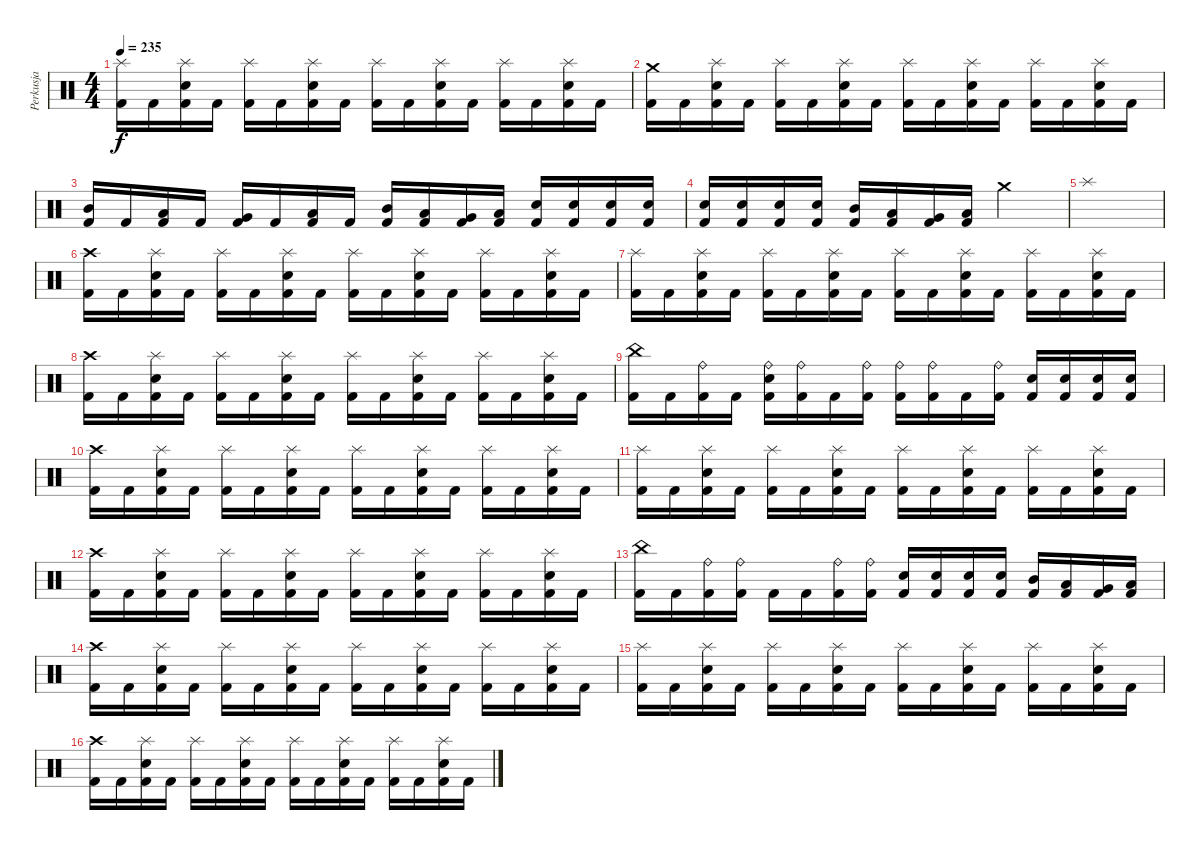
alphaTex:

\track ("Perkusja" "Perkusja") {instrument percussion}
\staff {score}
\articulation defaults
\ts (4 4)
\tempo 235
\clef neutral
\ks c
("Splash (hit)" "Kick (hit) 2").16{dy f} "Kick (hit) 2".16 ("Splash (hit)" "Snare (hit) 2" "Kick (hit) 2").16 "Kick (hit) 2".16 ("Splash (hit)" "Kick (hit) 2").16 "Kick (hit) 2".16 ("Splash (hit)" "Snare (hit) 2" "Kick (hit) 2").16 "Kick (hit) 2".16 ("Splash (hit)" "Kick (hit) 2").16 "Kick (hit) 2".16 ("Splash (hit)" "Snare (hit) 2" "Kick (hit) 2").16 "Kick (hit) 2".16 ("Splash (hit)" "Kick (hit) 2").16 "Kick (hit) 2".16 ("Splash (hit)" "Snare (hit) 2" "Kick (hit) 2").16 "Kick (hit) 2".16 |
("Crash medium (hit)" "Kick (hit) 2").16 "Kick (hit) 2".16 ("Splash (hit)" "Snare (hit) 2" "Kick (hit) 2").16 "Kick (hit) 2".16 ("Splash (hit)" "Kick (hit) 2").16 "Kick (hit) 2".16 ("Splash (hit)" "Snare (hit) 2" "Kick (hit) 2").16 "Kick (hit) 2".16 ("Splash (hit)" "Kick (hit) 2").16 "Kick (hit) 2".16 ("Splash (hit)" "Snare (hit) 2" "Kick (hit) 2").16 "Kick (hit) 2".16 ("Splash (hit)" "Kick (hit) 2").16 "Kick (hit) 2".16 ("Splash (hit)" "Snare (hit) 2" "Kick (hit) 2").16 "Kick (hit) 2".16 |
("Mid Tom (hit)" "Kick (hit) 2").16 "Kick (hit) 2".16 ("Low Tom (hit)" "Kick (hit) 2").16 "Kick (hit) 2".16 ("Very Low Tom (hit)" "Kick (hit) 2").16 "Kick (hit) 2".16 ("Low Floor Tom (hit)" "Kick (hit) 2").16 "Kick (hit) 2".16 ("Mid Tom (hit)" "Kick (hit) 2").16 ("Low Tom (hit)" "Kick (hit) 2").16 ("Very Low Tom (hit)" "Kick (hit) 2").16 ("Low Floor Tom (hit)" "Kick (hit) 2").16 ("Snare (hit) 2" "Kick (hit) 2").16 ("Snare (hit) 2" "Kick (hit) 2").16 ("Snare (hit) 2" "Kick (hit) 2").16 ("Snare (hit) 2" "Kick (hit) 2").16 |
("Electric Snare (hit)" "Kick (hit) 2").16 ("Electric Snare (hit)" "Kick (hit) 2").16 ("Electric Snare (hit)" "Kick (hit) 2").16 ("Electric Snare (hit)" "Kick (hit) 2").16 ("Mid Tom (hit)" "Kick (hit) 2").16 ("Low Tom (hit)" "Kick (hit) 2").16 ("Very Low Tom (hit)" "Kick (hit) 2").16 ("Low Floor Tom (hit)" "Kick (hit) 2").16 "Crash medium (hit)".2 |
"Splash (hit)".1 |
("Crash high (hit)" "Kick (hit) 2").16 "Kick (hit) 2".16 ("Splash (hit)" "Snare (hit) 2" "Kick (hit) 2").16 "Kick (hit) 2".16 ("Splash (hit)" "Kick (hit) 2").16 "Kick (hit) 2".16 ("Splash (hit)" "Snare (hit) 2" "Kick (hit) 2").16 "Kick (hit) 2".16 ("Splash (hit)" "Kick (hit) 2").16 "Kick (hit) 2".16 ("Splash (hit)" "Snare (hit) 2" "Kick (hit) 2").16 "Kick (hit) 2".16 ("Splash (hit)" "Kick (hit) 2").16 "Kick (hit) 2".16 ("Splash (hit)" "Snare (hit) 2" "Kick (hit) 2").16 "Kick (hit) 2".16 |
("Splash (hit)" "Kick (hit) 2").16 "Kick (hit) 2".16 ("Splash (hit)" "Snare (hit) 2" "Kick (hit) 2").16 "Kick (hit) 2".16 ("Splash (hit)" "Kick (hit) 2").16 "Kick (hit) 2".16 ("Splash (hit)" "Snare (hit) 2" "Kick (hit) 2").16 "Kick (hit) 2".16 ("Splash (hit)" "Kick (hit) 2").16 "Kick (hit) 2".16 ("Splash (hit)" "Snare (hit) 2" "Kick (hit) 2").16 "Kick (hit) 2".16 ("Splash (hit)" "Kick (hit) 2").16 "Kick (hit) 2".16 ("Splash (hit)" "Snare (hit) 2" "Kick (hit) 2").16 "Kick (hit) 2".16 |
("Crash high (hit)" "Kick (hit) 2").16 "Kick (hit) 2".16 ("Splash (hit)" "Snare (hit) 2" "Kick (hit) 2").16 "Kick (hit) 2".16 ("Splash (hit)" "Kick (hit) 2").16 "Kick (hit) 2".16 ("Splash (hit)" "Snare (hit) 2" "Kick (hit) 2").16 "Kick (hit) 2".16 ("Splash (hit)" "Kick (hit) 2").16 "Kick (hit) 2".16 ("Splash (hit)" "Snare (hit) 2" "Kick (hit) 2").16 "Kick (hit) 2".16 ("Splash (hit)" "Kick (hit) 2").16 "Kick (hit) 2".16 ("Splash (hit)" "Snare (hit) 2" "Kick (hit) 2").16 "Kick (hit) 2".16 |
("China (hit)" "Kick (hit) 2").16 "Kick (hit) 2".16 ("Ride (bell)" "Kick (hit) 2").16 "Kick (hit) 2".16 ("Ride (bell)" "Electric Snare (hit)" "Kick (hit) 2").16 ("Ride (bell)" "Kick (hit) 2").16 "Kick (hit) 2".16 ("Ride (bell)" "Kick (hit) 2").16 ("Ride (bell)" "Kick (hit) 2").16 ("Ride (bell)" "Kick (hit) 2").16 "Kick (hit) 2".16 ("Ride (bell)" "Kick (hit) 2").16 ("Snare (hit) 2" "Kick (hit) 2").16 ("Snare (hit) 2" "Kick (hit) 2").16 ("Snare (hit) 2" "Kick (hit) 2").16 ("Snare (hit) 2" "Kick (hit) 2").16 |
("Crash high (hit)" "Kick (hit) 2").16 "Kick (hit) 2".16 ("Splash (hit)" "Snare (hit) 2" "Kick (hit) 2").16 "Kick (hit) 2".16 ("Splash (hit)" "Kick (hit) 2").16 "Kick (hit) 2".16 ("Splash (hit)" "Snare (hit) 2" "Kick (hit) 2").16 "Kick (hit) 2".16 ("Splash (hit)" "Kick (hit) 2").16 "Kick (hit) 2".16 ("Splash (hit)" "Snare (hit) 2" "Kick (hit) 2").16 "Kick (hit) 2".16 ("Splash (hit)" "Kick (hit) 2").16 "Kick (hit) 2".16 ("Splash (hit)" "Snare (hit) 2" "Kick (hit) 2").16 "Kick (hit) 2".16 |
("Splash (hit)" "Kick (hit) 2").16 "Kick (hit) 2".16 ("Splash (hit)" "Snare (hit) 2" "Kick (hit) 2").16 "Kick (hit) 2".16 ("Splash (hit)" "Kick (hit) 2").16 "Kick (hit) 2".16 ("Splash (hit)" "Snare (hit) 2" "Kick (hit) 2").16 "Kick (hit) 2".16 ("Splash (hit)" "Kick (hit) 2").16 "Kick (hit) 2".16 ("Splash (hit)" "Snare (hit) 2" "Kick (hit) 2").16 "Kick (hit) 2".16 ("Splash (hit)" "Kick (hit) 2").16 "Kick (hit) 2".16 ("Splash (hit)" "Snare (hit) 2" "Kick (hit) 2").16 "Kick (hit) 2".16 |
("Crash high (hit)" "Kick (hit) 2").16 "Kick (hit) 2".16 ("Splash (hit)" "Snare (hit) 2" "Kick (hit) 2").16 "Kick (hit) 2".16 ("Splash (hit)" "Kick (hit) 2").16 "Kick (hit) 2".16 ("Splash (hit)" "Snare (hit) 2" "Kick (hit) 2").16 "Kick (hit) 2".16 ("Splash (hit)" "Kick (hit) 2").16 "Kick (hit) 2".16 ("Splash (hit)" "Snare (hit) 2" "Kick (hit) 2").16 "Kick (hit) 2".16 ("Splash (hit)" "Kick (hit) 2").16 "Kick (hit) 2".16 ("Splash (hit)" "Snare (hit) 2" "Kick (hit) 2").16 "Kick (hit) 2".16 |
("China (hit)" "Kick (hit) 2").16 "Kick (hit) 2".16 ("Ride (bell)" "Kick (hit) 2").16 ("Ride (bell)" "Kick (hit) 2").16 "Kick (hit) 2".16 "Kick (hit) 2".16 ("Ride (bell)" "Kick (hit) 2").16 ("Ride (bell)" "Kick (hit) 2").16 ("Electric Snare (hit)" "Kick (hit) 2").16 ("Electric Snare (hit)" "Kick (hit) 2").16 ("Electric Snare (hit)" "Kick (hit) 2").16 ("Electric Snare (hit)" "Kick (hit) 2").16 ("Mid Tom (hit)" "Kick (hit) 2").16 ("Low Tom (hit)" "Kick (hit) 2").16 ("Very Low Tom (hit)" "Kick (hit) 2").16 ("Low Floor Tom (hit)" "Kick (hit) 2").16 |
("Crash high (hit)" "Kick (hit) 2").16 "Kick (hit) 2".16 ("Splash (hit)" "Snare (hit) 2" "Kick (hit) 2").16 "Kick (hit) 2".16 ("Splash (hit)" "Kick (hit) 2").16 "Kick (hit) 2".16 ("Splash (hit)" "Snare (hit) 2" "Kick (hit) 2").16 "Kick (hit) 2".16 ("Splash (hit)" "Kick (hit) 2").16 "Kick (hit) 2".16 ("Splash (hit)" "Snare (hit) 2" "Kick (hit) 2").16 "Kick (hit) 2".16 ("Splash (hit)" "Kick (hit) 2").16 "Kick (hit) 2".16 ("Splash (hit)" "Snare (hit) 2" "Kick (hit) 2").16 "Kick (hit) 2".16 |
("Splash (hit)" "Kick (hit) 2").16 "Kick (hit) 2".16 ("Splash (hit)" "Snare (hit) 2" "Kick (hit) 2").16 "Kick (hit) 2".16 ("Splash (hit)" "Kick (hit) 2").16 "Kick (hit) 2".16 ("Splash (hit)" "Snare (hit) 2" "Kick (hit) 2").16 "Kick (hit) 2".16 ("Splash (hit)" "Kick (hit) 2").16 "Kick (hit) 2".16 ("Splash (hit)" "Snare (hit) 2" "Kick (hit) 2").16 "Kick (hit) 2".16 ("Splash (hit)" "Kick (hit) 2").16 "Kick (hit) 2".16 ("Splash (hit)" "Snare (hit) 2" "Kick (hit) 2").16 "Kick (hit) 2".16 |
("Crash high (hit)" "Kick (hit) 2").16 "Kick (hit) 2".16 ("Splash (hit)" "Snare (hit) 2" "Kick (hit) 2").16 "Kick (hit) 2".16 ("Splash (hit)" "Kick (hit) 2").16 "Kick (hit) 2".16 ("Splash (hit)" "Snare (hit) 2" "Kick (hit) 2").16 "Kick (hit) 2".16 ("Splash (hit)" "Kick (hit) 2").16 "Kick (hit) 2".16 ("Splash (hit)" "Snare (hit) 2" "Kick (hit) 2").16 "Kick (hit) 2".16 ("Splash (hit)" "Kick (hit) 2").16 "Kick (hit) 2".16 ("Splash (hit)" "Snare (hit) 2" "Kick (hit) 2").16 "Kick (hit) 2".16
